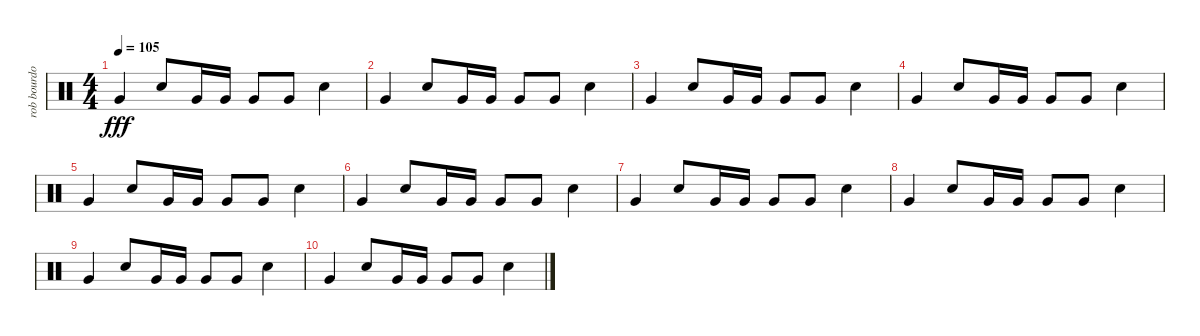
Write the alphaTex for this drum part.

\track ("rob bourdon" "rob bourdo") {instrument percussion}
\staff {score}
\articulation defaults
\ts (4 4)
\tempo 105
\clef neutral
\ks c "Very Low Tom (hit)".4{dy fff} "Snare (hit) 2".8 "Very Low Tom (hit)".16 "Very Low Tom (hit)".16 "Very Low Tom (hit)".8 "Very Low Tom (hit)".8 "Snare (hit) 2".4
|
"Very Low Tom (hit)".4 "Snare (hit) 2".8 "Very Low Tom (hit)".16 "Very Low Tom (hit)".16 "Very Low Tom (hit)".8 "Very Low Tom (hit)".8 "Snare (hit) 2".4 |
"Very Low Tom (hit)".4 "Snare (hit) 2".8 "Very Low Tom (hit)".16 "Very Low Tom (hit)".16 "Very Low Tom (hit)".8 "Very Low Tom (hit)".8 "Snare (hit) 2".4 |
"Very Low Tom (hit)".4 "Snare (hit) 2".8 "Very Low Tom (hit)".16 "Very Low Tom (hit)".16 "Very Low Tom (hit)".8 "Very Low Tom (hit)".8 "Snare (hit) 2".4 |
"Very Low Tom (hit)".4 "Snare (hit) 2".8 "Very Low Tom (hit)".16 "Very Low Tom (hit)".16 "Very Low Tom (hit)".8 "Very Low Tom (hit)".8 "Snare (hit) 2".4 |
"Very Low Tom (hit)".4 "Snare (hit) 2".8 "Very Low Tom (hit)".16 "Very Low Tom (hit)".16 "Very Low Tom (hit)".8 "Very Low Tom (hit)".8 "Snare (hit) 2".4 |
"Very Low Tom (hit)".4 "Snare (hit) 2".8 "Very Low Tom (hit)".16 "Very Low Tom (hit)".16 "Very Low Tom (hit)".8 "Very Low Tom (hit)".8 "Snare (hit) 2".4 |
"Very Low Tom (hit)".4 "Snare (hit) 2".8 "Very Low Tom (hit)".16 "Very Low Tom (hit)".16 "Very Low Tom (hit)".8 "Very Low Tom (hit)".8 "Snare (hit) 2".4 |
"Very Low Tom (hit)".4 "Snare (hit) 2".8 "Very Low Tom (hit)".16 "Very Low Tom (hit)".16 "Very Low Tom (hit)".8 "Very Low Tom (hit)".8 "Snare (hit) 2".4 |
"Very Low Tom (hit)".4 "Snare (hit) 2".8 "Very Low Tom (hit)".16 "Very Low Tom (hit)".16 "Very Low Tom (hit)".8 "Very Low Tom (hit)".8 "Snare (hit) 2".4
